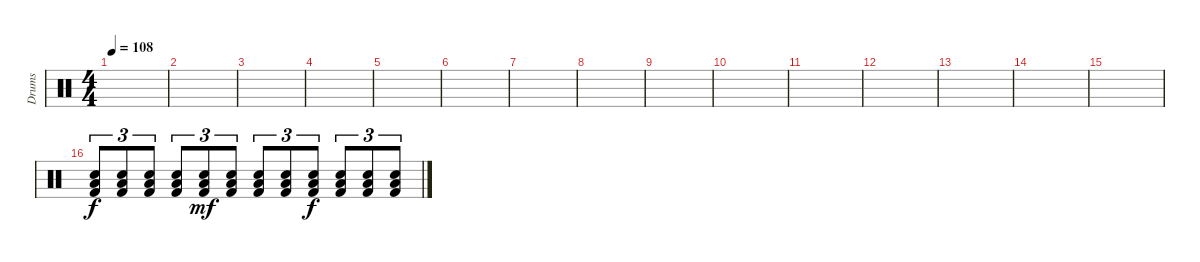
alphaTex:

\track ("Drums" "Drums") {instrument percussion}
\staff {score}
\articulation defaults
\ts (4 4)
\tempo 108
\clef neutral
\ks c
|
|
|
|
|
|
|
|
|
|
|
|
|
|
|
("Low Floor Tom (hit)" "Electric Snare (hit)" "Kick (hit) 2").8{tu (3 2)} ("Low Floor Tom (hit)" "Electric Snare (hit)" "Kick (hit) 2").8{tu (3 2)} ("Low Floor Tom (hit)" "Electric Snare (hit)" "Kick (hit) 2").8{tu (3 2)} ("Low Floor Tom (hit)" "Electric Snare (hit)" "Kick (hit) 2").8{tu (3 2)} ("Low Floor Tom (hit)" "Electric Snare (hit)" "Kick (hit) 2").8{tu (3 2) dy mf} ("Low Floor Tom (hit)" "Electric Snare (hit)" "Kick (hit) 2").8{tu (3 2)} ("Low Floor Tom (hit)" "Electric Snare (hit)" "Kick (hit) 2").8{tu (3 2)} ("Low Floor Tom (hit)" "Electric Snare (hit)" "Kick (hit) 2").8{tu (3 2)} ("Low Floor Tom (hit)" "Electric Snare (hit)" "Kick (hit) 2").8{tu (3 2) dy f} ("Low Floor Tom (hit)" "Electric Snare (hit)" "Kick (hit) 2").8{tu (3 2)} ("Low Floor Tom (hit)" "Electric Snare (hit)" "Kick (hit) 2").8{tu (3 2)} ("Low Floor Tom (hit)" "Electric Snare (hit)" "Kick (hit) 2").8{tu (3 2)}
